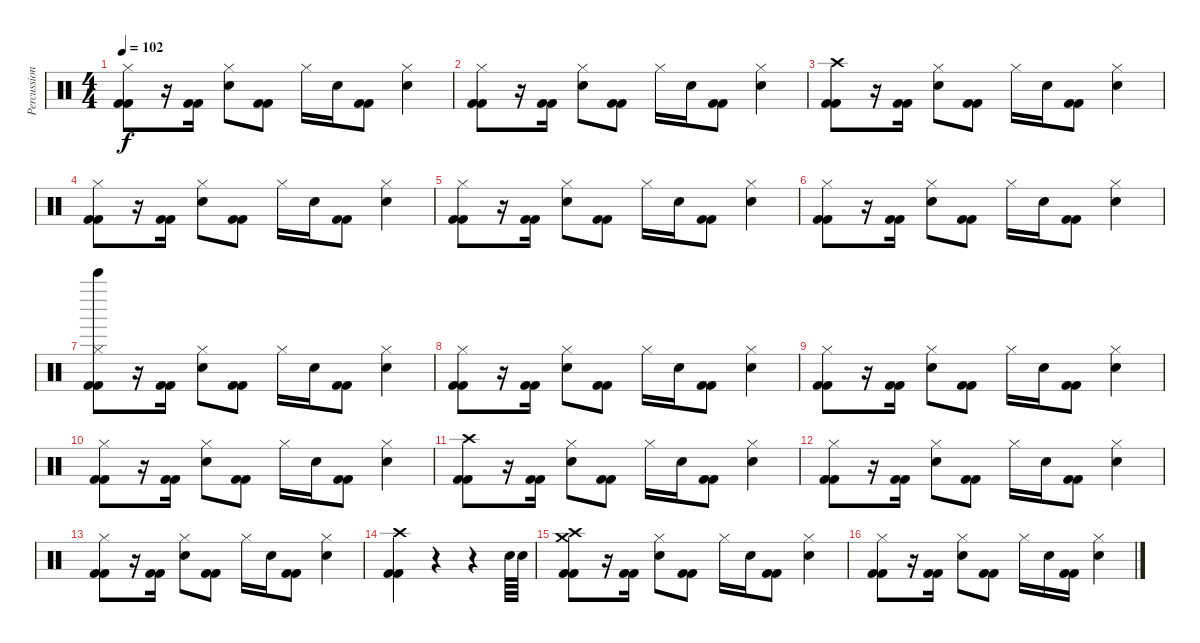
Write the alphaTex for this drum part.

\track ("Percussions" "Percussion") {instrument percussion}
\staff {score}
\articulation defaults
\ts (4 4)
\tempo 102
\clef neutral
\ks c
("Hi-Hat (closed)" "Kick (hit) 2" "Kick (hit) 2").8{dy f} r.16 ("Kick (hit) 2" "Kick (hit) 2").16 ("Hi-Hat (closed)" "Electric Snare (hit)").8 ("Kick (hit) 2" "Kick (hit) 2").8 "Hi-Hat (closed)".16 "Electric Snare (hit)".16 ("Kick (hit) 2" "Kick (hit) 2").8 ("Hi-Hat (closed)" "Electric Snare (hit)").4 |
("Hi-Hat (closed)" "Kick (hit) 2" "Kick (hit) 2").8 r.16 ("Kick (hit) 2" "Kick (hit) 2").16 ("Hi-Hat (closed)" "Electric Snare (hit)").8 ("Kick (hit) 2" "Kick (hit) 2").8 "Hi-Hat (closed)".16 "Electric Snare (hit)".16 ("Kick (hit) 2" "Kick (hit) 2").8 ("Hi-Hat (closed)" "Electric Snare (hit)").4 |
("Crash high (hit)" "Kick (hit) 2" "Kick (hit) 2").8 r.16 ("Kick (hit) 2" "Kick (hit) 2").16 ("Hi-Hat (closed)" "Electric Snare (hit)").8 ("Kick (hit) 2" "Kick (hit) 2").8 "Hi-Hat (closed)".16 "Electric Snare (hit)".16 ("Kick (hit) 2" "Kick (hit) 2").8 ("Hi-Hat (closed)" "Electric Snare (hit)").4 |
("Hi-Hat (closed)" "Kick (hit) 2" "Kick (hit) 2").8 r.16 ("Kick (hit) 2" "Kick (hit) 2").16 ("Hi-Hat (closed)" "Electric Snare (hit)").8 ("Kick (hit) 2" "Kick (hit) 2").8 "Hi-Hat (closed)".16 "Electric Snare (hit)".16 ("Kick (hit) 2" "Kick (hit) 2").8 ("Hi-Hat (closed)" "Electric Snare (hit)").4 |
("Hi-Hat (closed)" "Kick (hit) 2" "Kick (hit) 2").8 r.16 ("Kick (hit) 2" "Kick (hit) 2").16 ("Hi-Hat (closed)" "Electric Snare (hit)").8 ("Kick (hit) 2" "Kick (hit) 2").8 "Hi-Hat (closed)".16 "Electric Snare (hit)".16 ("Kick (hit) 2" "Kick (hit) 2").8 ("Hi-Hat (closed)" "Electric Snare (hit)").4 |
("Hi-Hat (closed)" "Kick (hit) 2" "Kick (hit) 2").8 r.16 ("Kick (hit) 2" "Kick (hit) 2").16 ("Hi-Hat (closed)" "Electric Snare (hit)").8 ("Kick (hit) 2" "Kick (hit) 2").8 "Hi-Hat (closed)".16 "Electric Snare (hit)".16 ("Kick (hit) 2" "Kick (hit) 2").8 ("Hi-Hat (closed)" "Electric Snare (hit)").4 |
("Hi-Hat (closed)" "Bell Tree (hit)" "Kick (hit) 2" "Kick (hit) 2").8 r.16 ("Kick (hit) 2" "Kick (hit) 2").16 ("Hi-Hat (closed)" "Electric Snare (hit)").8 ("Kick (hit) 2" "Kick (hit) 2").8 "Hi-Hat (closed)".16 "Electric Snare (hit)".16 ("Kick (hit) 2" "Kick (hit) 2").8 ("Hi-Hat (closed)" "Electric Snare (hit)").4 |
("Hi-Hat (closed)" "Kick (hit) 2" "Kick (hit) 2").8 r.16 ("Kick (hit) 2" "Kick (hit) 2").16 ("Hi-Hat (closed)" "Electric Snare (hit)").8 ("Kick (hit) 2" "Kick (hit) 2").8 "Hi-Hat (closed)".16 "Electric Snare (hit)".16 ("Kick (hit) 2" "Kick (hit) 2").8 ("Hi-Hat (closed)" "Electric Snare (hit)").4 |
("Hi-Hat (closed)" "Kick (hit) 2" "Kick (hit) 2").8 r.16 ("Kick (hit) 2" "Kick (hit) 2").16 ("Hi-Hat (closed)" "Electric Snare (hit)").8 ("Kick (hit) 2" "Kick (hit) 2").8 "Hi-Hat (closed)".16 "Electric Snare (hit)".16 ("Kick (hit) 2" "Kick (hit) 2").8 ("Hi-Hat (closed)" "Electric Snare (hit)").4 |
("Hi-Hat (closed)" "Kick (hit) 2" "Kick (hit) 2").8 r.16 ("Kick (hit) 2" "Kick (hit) 2").16 ("Hi-Hat (closed)" "Electric Snare (hit)").8 ("Kick (hit) 2" "Kick (hit) 2").8 "Hi-Hat (closed)".16 "Electric Snare (hit)".16 ("Kick (hit) 2" "Kick (hit) 2").8 ("Hi-Hat (closed)" "Electric Snare (hit)").4 |
("Crash high (hit)" "Kick (hit) 2" "Kick (hit) 2").8 r.16 ("Kick (hit) 2" "Kick (hit) 2").16 ("Hi-Hat (closed)" "Electric Snare (hit)").8 ("Kick (hit) 2" "Kick (hit) 2").8 "Hi-Hat (closed)".16 "Electric Snare (hit)".16 ("Kick (hit) 2" "Kick (hit) 2").8 ("Hi-Hat (closed)" "Electric Snare (hit)").4 |
("Hi-Hat (closed)" "Kick (hit) 2" "Kick (hit) 2").8 r.16 ("Kick (hit) 2" "Kick (hit) 2").16 ("Hi-Hat (closed)" "Electric Snare (hit)").8 ("Kick (hit) 2" "Kick (hit) 2").8 "Hi-Hat (closed)".16 "Electric Snare (hit)".16 ("Kick (hit) 2" "Kick (hit) 2").8 ("Hi-Hat (closed)" "Electric Snare (hit)").4 |
("Hi-Hat (closed)" "Kick (hit) 2" "Kick (hit) 2").8 r.16 ("Kick (hit) 2" "Kick (hit) 2").16 ("Hi-Hat (closed)" "Electric Snare (hit)").8 ("Kick (hit) 2" "Kick (hit) 2").8 "Hi-Hat (closed)".16 "Electric Snare (hit)".16 ("Kick (hit) 2" "Kick (hit) 2").8 ("Hi-Hat (closed)" "Electric Snare (hit)").4 |
("Crash high (hit)" "Kick (hit) 2" "Kick (hit) 2").4 r.4 r.4 "Electric Snare (hit)".64 "Electric Snare (hit)".64 |
("Crash high (hit)" "Crash medium (hit)" "Kick (hit) 2" "Kick (hit) 2").8 r.16 ("Kick (hit) 2" "Kick (hit) 2").16 ("Hi-Hat (closed)" "Electric Snare (hit)").8 ("Kick (hit) 2" "Kick (hit) 2").8 "Hi-Hat (closed)".16 "Electric Snare (hit)".16 ("Kick (hit) 2" "Kick (hit) 2").8 ("Hi-Hat (closed)" "Electric Snare (hit)").4 |
("Hi-Hat (closed)" "Kick (hit) 2" "Kick (hit) 2").8 r.16 ("Kick (hit) 2" "Kick (hit) 2").16 ("Hi-Hat (closed)" "Electric Snare (hit)").8 ("Kick (hit) 2" "Kick (hit) 2").8 "Hi-Hat (closed)".16 "Electric Snare (hit)".16 ("Kick (hit) 2" "Kick (hit) 2").16 ("Hi-Hat (closed)" "Electric Snare (hit)").4
